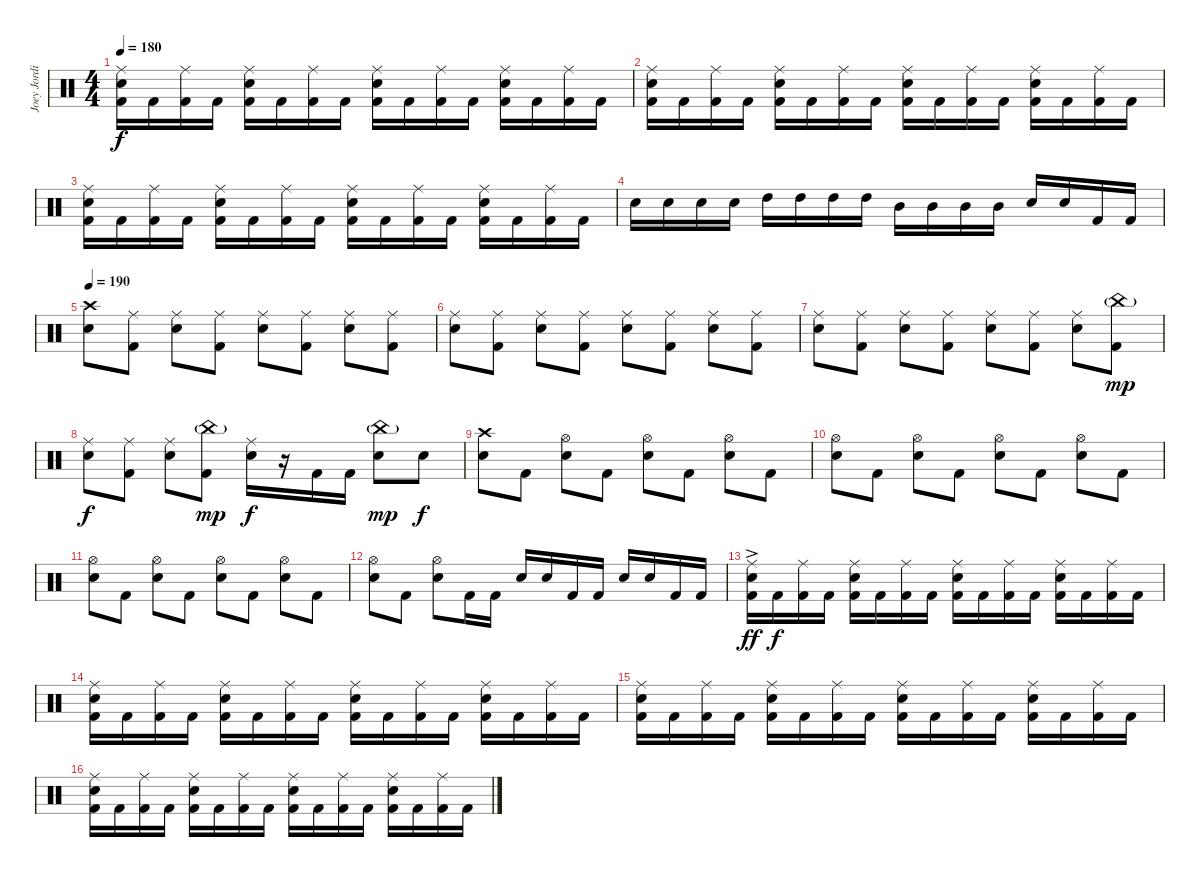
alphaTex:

\track ("Joey Jordison" "Joey Jordi") {instrument percussion}
\staff {score}
\articulation defaults
\ts (4 4)
\tempo 180
\clef neutral
\ks c
("Ride (middle)" "Electric Snare (hit)" "Kick (hit) 2").16{dy f} "Kick (hit) 2".16 ("Ride (middle)" "Kick (hit) 2").16 "Kick (hit) 2".16 ("Ride (middle)" "Electric Snare (hit)" "Kick (hit) 2").16 "Kick (hit) 2".16 ("Ride (middle)" "Kick (hit) 2").16 "Kick (hit) 2".16 ("Ride (middle)" "Electric Snare (hit)" "Kick (hit) 2").16 "Kick (hit) 2".16 ("Ride (middle)" "Kick (hit) 2").16 "Kick (hit) 2".16 ("Ride (middle)" "Electric Snare (hit)" "Kick (hit) 2").16 "Kick (hit) 2".16 ("Ride (middle)" "Kick (hit) 2").16 "Kick (hit) 2".16 |
("Ride (middle)" "Electric Snare (hit)" "Kick (hit) 2").16 "Kick (hit) 2".16 ("Ride (middle)" "Kick (hit) 2").16 "Kick (hit) 2".16 ("Ride (middle)" "Electric Snare (hit)" "Kick (hit) 2").16 "Kick (hit) 2".16 ("Ride (middle)" "Kick (hit) 2").16 "Kick (hit) 2".16 ("Ride (middle)" "Electric Snare (hit)" "Kick (hit) 2").16 "Kick (hit) 2".16 ("Ride (middle)" "Kick (hit) 2").16 "Kick (hit) 2".16 ("Ride (middle)" "Electric Snare (hit)" "Kick (hit) 2").16 "Kick (hit) 2".16 ("Ride (middle)" "Kick (hit) 2").16 "Kick (hit) 2".16 |
("Ride (middle)" "Electric Snare (hit)" "Kick (hit) 2").16 "Kick (hit) 2".16 ("Ride (middle)" "Kick (hit) 2").16 "Kick (hit) 2".16 ("Ride (middle)" "Electric Snare (hit)" "Kick (hit) 2").16 "Kick (hit) 2".16 ("Ride (middle)" "Kick (hit) 2").16 "Kick (hit) 2".16 ("Ride (middle)" "Electric Snare (hit)" "Kick (hit) 2").16 "Kick (hit) 2".16 ("Ride (middle)" "Kick (hit) 2").16 "Kick (hit) 2".16 ("Ride (middle)" "Electric Snare (hit)" "Kick (hit) 2").16 "Kick (hit) 2".16 ("Ride (middle)" "Kick (hit) 2").16 "Kick (hit) 2".16 |
"Electric Snare (hit)".16 "Electric Snare (hit)".16 "Electric Snare (hit)".16 "Electric Snare (hit)".16 "High Tom (hit)".16 "High Tom (hit)".16 "High Tom (hit)".16 "High Tom (hit)".16 "Mid Tom (hit)".16 "Mid Tom (hit)".16 "Mid Tom (hit)".16 "Mid Tom (hit)".16 "Electric Snare (hit)".16 "Electric Snare (hit)".16 "Kick (hit) 2".16 "Kick (hit) 2".16 |
\tempo 190
("Crash high (hit)" "Electric Snare (hit)").8 ("Ride (middle)" "Kick (hit) 2").8 ("Ride (middle)" "Electric Snare (hit)").8 ("Ride (middle)" "Kick (hit) 2").8 ("Ride (middle)" "Electric Snare (hit)").8 ("Ride (middle)" "Kick (hit) 2").8 ("Ride (middle)" "Electric Snare (hit)").8 ("Ride (middle)" "Kick (hit) 2").8 |
("Ride (middle)" "Electric Snare (hit)").8 ("Ride (middle)" "Kick (hit) 2").8 ("Ride (middle)" "Electric Snare (hit)").8 ("Ride (middle)" "Kick (hit) 2").8 ("Ride (middle)" "Electric Snare (hit)").8 ("Ride (middle)" "Kick (hit) 2").8 ("Ride (middle)" "Electric Snare (hit)").8 ("Ride (middle)" "Kick (hit) 2").8 |
("Ride (middle)" "Electric Snare (hit)").8 ("Ride (middle)" "Kick (hit) 2").8 ("Ride (middle)" "Electric Snare (hit)").8 ("Ride (middle)" "Kick (hit) 2").8 ("Ride (middle)" "Electric Snare (hit)").8 ("Ride (middle)" "Kick (hit) 2").8 ("Ride (middle)" "Electric Snare (hit)").8 ("China (hit)"{g} "Kick (hit) 2").8{dy mp} |
("Ride (middle)" "Electric Snare (hit)").8{dy f} ("Ride (middle)" "Kick (hit) 2").8 ("Ride (middle)" "Electric Snare (hit)").8 ("China (hit)"{g} "Kick (hit) 2").8{dy mp} ("Ride (middle)" "Electric Snare (hit)").16{dy f} r.16 "Kick (hit) 2".16 "Kick (hit) 2".16 ("China (hit)"{g} "Electric Snare (hit)").8{dy mp} "Electric Snare (hit)".8{dy f} |
("Crash high (hit)" "Electric Snare (hit)").8 "Kick (hit) 2".8 ("Hi-Hat (open)" "Electric Snare (hit)").8 "Kick (hit) 2".8 ("Hi-Hat (open)" "Electric Snare (hit)").8 "Kick (hit) 2".8 ("Hi-Hat (open)" "Electric Snare (hit)").8 "Kick (hit) 2".8 |
("Hi-Hat (open)" "Electric Snare (hit)").8 "Kick (hit) 2".8 ("Hi-Hat (open)" "Electric Snare (hit)").8 "Kick (hit) 2".8 ("Hi-Hat (open)" "Electric Snare (hit)").8 "Kick (hit) 2".8 ("Hi-Hat (open)" "Electric Snare (hit)").8 "Kick (hit) 2".8 |
("Hi-Hat (open)" "Electric Snare (hit)").8 "Kick (hit) 2".8 ("Hi-Hat (open)" "Electric Snare (hit)").8 "Kick (hit) 2".8 ("Hi-Hat (open)" "Electric Snare (hit)").8 "Kick (hit) 2".8 ("Hi-Hat (open)" "Electric Snare (hit)").8 "Kick (hit) 2".8 |
("Hi-Hat (open)" "Electric Snare (hit)").8 "Kick (hit) 2".8 ("Hi-Hat (open)" "Electric Snare (hit)").8 "Kick (hit) 2".16 "Kick (hit) 2".16 "Electric Snare (hit)".16 "Electric Snare (hit)".16 "Kick (hit) 2".16 "Kick (hit) 2".16 "Electric Snare (hit)".16 "Electric Snare (hit)".16 "Kick (hit) 2".16 "Kick (hit) 2".16 |
("Ride (middle)"{ac} "Electric Snare (hit)"{ac} "Kick (hit) 2").16{dy ff} "Kick (hit) 2".16{dy f} ("Ride (middle)" "Kick (hit) 2").16 "Kick (hit) 2".16 ("Ride (middle)" "Electric Snare (hit)" "Kick (hit) 2").16 "Kick (hit) 2".16 ("Ride (middle)" "Kick (hit) 2").16 "Kick (hit) 2".16 ("Ride (middle)" "Electric Snare (hit)" "Kick (hit) 2").16 "Kick (hit) 2".16 ("Ride (middle)" "Kick (hit) 2").16 "Kick (hit) 2".16 ("Ride (middle)" "Electric Snare (hit)" "Kick (hit) 2").16 "Kick (hit) 2".16 ("Ride (middle)" "Kick (hit) 2").16 "Kick (hit) 2".16 |
("Ride (middle)" "Electric Snare (hit)" "Kick (hit) 2").16 "Kick (hit) 2".16 ("Ride (middle)" "Kick (hit) 2").16 "Kick (hit) 2".16 ("Ride (middle)" "Electric Snare (hit)" "Kick (hit) 2").16 "Kick (hit) 2".16 ("Ride (middle)" "Kick (hit) 2").16 "Kick (hit) 2".16 ("Ride (middle)" "Electric Snare (hit)" "Kick (hit) 2").16 "Kick (hit) 2".16 ("Ride (middle)" "Kick (hit) 2").16 "Kick (hit) 2".16 ("Ride (middle)" "Electric Snare (hit)" "Kick (hit) 2").16 "Kick (hit) 2".16 ("Ride (middle)" "Kick (hit) 2").16 "Kick (hit) 2".16 |
("Ride (middle)" "Electric Snare (hit)" "Kick (hit) 2").16 "Kick (hit) 2".16 ("Ride (middle)" "Kick (hit) 2").16 "Kick (hit) 2".16 ("Ride (middle)" "Electric Snare (hit)" "Kick (hit) 2").16 "Kick (hit) 2".16 ("Ride (middle)" "Kick (hit) 2").16 "Kick (hit) 2".16 ("Ride (middle)" "Electric Snare (hit)" "Kick (hit) 2").16 "Kick (hit) 2".16 ("Ride (middle)" "Kick (hit) 2").16 "Kick (hit) 2".16 ("Ride (middle)" "Electric Snare (hit)" "Kick (hit) 2").16 "Kick (hit) 2".16 ("Ride (middle)" "Kick (hit) 2").16 "Kick (hit) 2".16 |
("Ride (middle)" "Electric Snare (hit)" "Kick (hit) 2").16 "Kick (hit) 2".16 ("Ride (middle)" "Kick (hit) 2").16 "Kick (hit) 2".16 ("Ride (middle)" "Electric Snare (hit)" "Kick (hit) 2").16 "Kick (hit) 2".16 ("Ride (middle)" "Kick (hit) 2").16 "Kick (hit) 2".16 ("Ride (middle)" "Electric Snare (hit)" "Kick (hit) 2").16 "Kick (hit) 2".16 ("Ride (middle)" "Kick (hit) 2").16 "Kick (hit) 2".16 ("Ride (middle)" "Electric Snare (hit)" "Kick (hit) 2").16 "Kick (hit) 2".16 ("Ride (middle)" "Kick (hit) 2").16 "Kick (hit) 2".16
